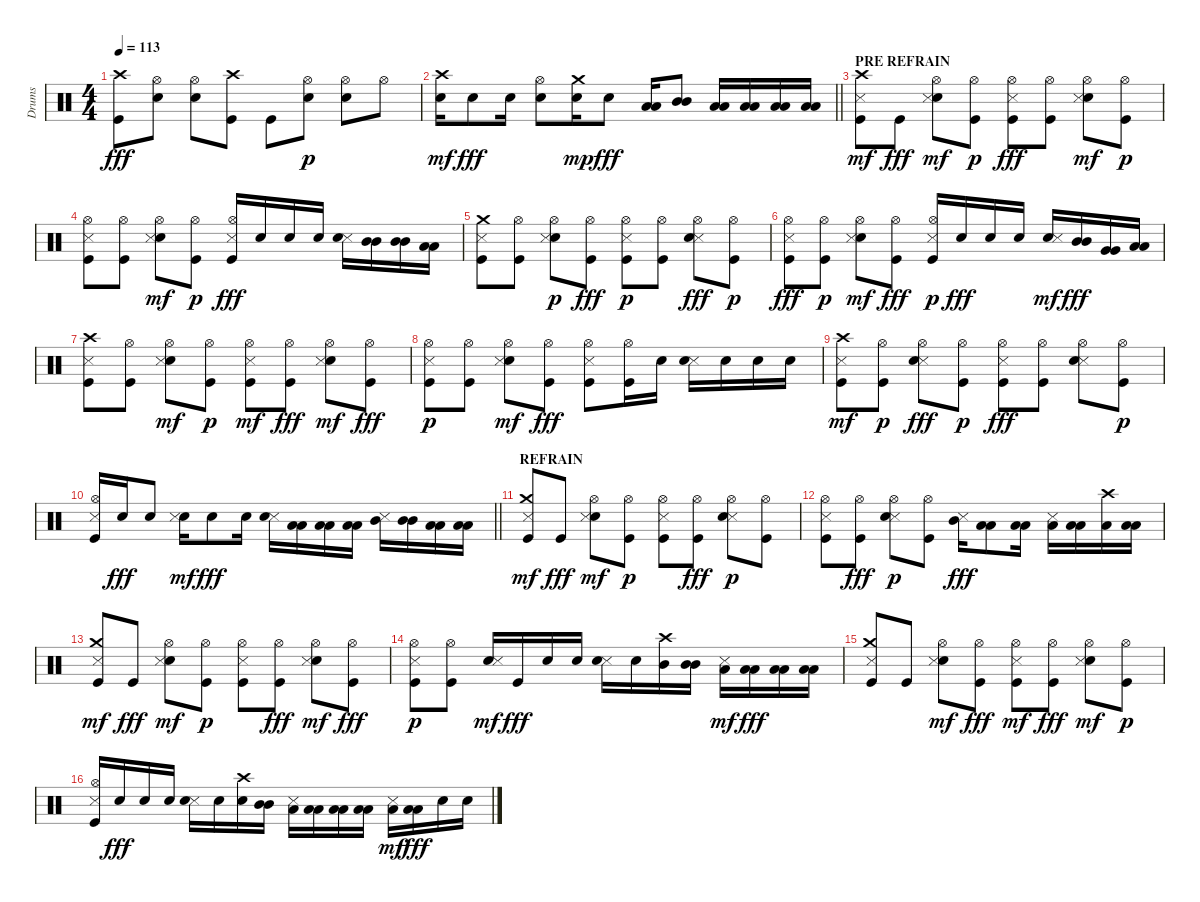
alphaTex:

\track ("Drums" "Drums") {instrument percussion}
\staff {score}
\articulation defaults
\ts (4 4)
\tempo 113
\clef neutral
\ks c
("Crash high (hit)" "Kick (hit)").8{dy fff} ("Hi-Hat (open)" "Electric Snare (hit)").8 ("Hi-Hat (open)" "Electric Snare (hit)").8 ("Crash high (hit)" "Kick (hit)").8 "Kick (hit)".8 ("Electric Snare (hit)" "Hi-Hat (open)").8{dy p} ("Electric Snare (hit)" "Hi-Hat (open)").8 "Hi-Hat (open)".8 |
\barLineRight lightlight
("Electric Snare (hit)" "Crash high (hit)").16{dy mf} "Electric Snare (hit)".8{dy fff} "Electric Snare (hit)".16 ("Hi-Hat (open)" "Electric Snare (hit)").8 ("Electric Snare (hit)" "Crash medium (hit)").16{dy mp} "Electric Snare (hit)".8{dy fff} ("Low Tom (hit)" "Low Tom (hit)").16 ("Mid Tom (hit)" "Mid Tom (hit)").8 ("Low Tom (hit)" "Low Tom (hit)").16 ("Low Floor Tom (hit)" "Low Floor Tom (hit)").16 ("Low Floor Tom (hit)" "Low Floor Tom (hit)").16 ("Low Floor Tom (hit)" "Low Floor Tom (hit)").16 |
\section ("" "PRE REFRAIN")
("Kick (hit)" "Crash high (hit)" "Snare (side stick) 3").8{dy mf} "Kick (hit)".8{dy fff} ("Electric Snare (hit)" "Hi-Hat (open)" "Snare (side stick) 3").8{dy mf} ("Kick (hit)" "Hi-Hat (open)").8{dy p} ("Snare (side stick) 3" "Hi-Hat (open)" "Kick (hit)").8{dy fff} ("Hi-Hat (open)" "Kick (hit)").8 ("Electric Snare (hit)" "Hi-Hat (open)" "Snare (side stick) 3").8{dy mf} ("Kick (hit)" "Hi-Hat (open)").8{dy p} |
("Snare (side stick) 3" "Kick (hit)" "Hi-Hat (open)").8 ("Kick (hit)" "Hi-Hat (open)").8 ("Electric Snare (hit)" "Hi-Hat (open)" "Snare (side stick) 3").8{dy mf} ("Kick (hit)" "Hi-Hat (open)").8{dy p} ("Snare (side stick) 3" "Hi-Hat (open)" "Kick (hit)").16{dy fff} "Electric Snare (hit)".16 "Electric Snare (hit)".16 "Electric Snare (hit)".16 ("Snare (side stick) 3" "Electric Snare (hit)").16 ("Mid Tom (hit)" "Mid Tom (hit)").16 ("Mid Tom (hit)" "Mid Tom (hit)").16 ("Low Tom (hit)" "Low Tom (hit)").16 |
("Snare (side stick) 3" "Crash medium (hit)" "Kick (hit)").8 ("Hi-Hat (open)" "Kick (hit)").8 ("Electric Snare (hit)" "Snare (side stick) 3" "Hi-Hat (open)").8{dy p} ("Hi-Hat (open)" "Kick (hit)").8{dy fff} ("Snare (side stick) 3" "Kick (hit)" "Hi-Hat (open)").8{dy p} ("Kick (hit)" "Hi-Hat (open)").8 ("Snare (side stick) 3" "Hi-Hat (open)" "Electric Snare (hit)").8{dy fff} ("Kick (hit)" "Hi-Hat (open)").8{dy p} |
("Snare (side stick) 3" "Hi-Hat (open)" "Kick (hit)").8{dy fff} ("Kick (hit)" "Hi-Hat (open)").8{dy p} ("Electric Snare (hit)" "Hi-Hat (open)" "Snare (side stick) 3").8{dy mf} ("Hi-Hat (open)" "Kick (hit)").8{dy fff} ("Snare (side stick) 3" "Kick (hit)" "Hi-Hat (open)").16{dy p} "Electric Snare (hit)".16{dy fff} "Electric Snare (hit)".16 "Electric Snare (hit)".16 ("Electric Snare (hit)" "Snare (side stick) 3").16{dy mf} ("Mid Tom (hit)" "Mid Tom (hit)").16{dy fff} ("Very Low Tom (hit)" "Very Low Tom (hit)").16 ("Low Tom (hit)" "Low Tom (hit)").16 |
("Snare (side stick) 3" "Crash high (hit)" "Kick (hit)").8 ("Hi-Hat (open)" "Kick (hit)").8 ("Electric Snare (hit)" "Hi-Hat (open)" "Snare (side stick) 3").8{dy mf} ("Kick (hit)" "Hi-Hat (open)").8{dy p} ("Hi-Hat (open)" "Kick (hit)" "Snare (side stick) 3").8{dy mf} ("Hi-Hat (open)" "Kick (hit)").8{dy fff} ("Electric Snare (hit)" "Hi-Hat (open)" "Snare (side stick) 3").8{dy mf} ("Hi-Hat (open)" "Kick (hit)").8{dy fff} |
("Snare (side stick) 3" "Kick (hit)" "Hi-Hat (open)").8{dy p} ("Kick (hit)" "Hi-Hat (open)").8 ("Electric Snare (hit)" "Hi-Hat (open)" "Snare (side stick) 3").8{dy mf} ("Hi-Hat (open)" "Kick (hit)").8{dy fff} ("Snare (side stick) 3" "Hi-Hat (open)" "Kick (hit)").8 ("Hi-Hat (open)" "Kick (hit)").16 "Electric Snare (hit)".16 ("Snare (side stick) 3" "Electric Snare (hit)").16 "Electric Snare (hit)".16 "Electric Snare (hit)".16 "Electric Snare (hit)".16 |
("Crash high (hit)" "Kick (hit)" "Snare (side stick) 3").8{dy mf} ("Kick (hit)" "Hi-Hat (open)").8{dy p} ("Hi-Hat (open)" "Snare (side stick) 3" "Electric Snare (hit)").8{dy fff} ("Kick (hit)" "Hi-Hat (open)").8{dy p} ("Snare (side stick) 3" "Hi-Hat (open)" "Kick (hit)").8{dy fff} ("Hi-Hat (open)" "Kick (hit)").8 ("Snare (side stick) 3" "Hi-Hat (open)" "Electric Snare (hit)").8 ("Kick (hit)" "Hi-Hat (open)").8{dy p} |
\barLineRight lightlight
("Snare (side stick) 3" "Kick (hit)" "Hi-Hat (open)").16 "Electric Snare (hit)".16{dy fff} "Electric Snare (hit)".8 ("Electric Snare (hit)" "Snare (side stick) 3").16{dy mf} "Electric Snare (hit)".8{dy fff} "Electric Snare (hit)".16 ("Snare (side stick) 3" "Electric Snare (hit)").16 ("Low Floor Tom (hit)" "Low Floor Tom (hit)").16 ("Low Floor Tom (hit)" "Low Floor Tom (hit)").16 ("Low Tom (hit)" "Low Tom (hit)").16 ("Snare (side stick) 3" "Mid Tom (hit)").16 ("Mid Tom (hit)" "Mid Tom (hit)").16 ("Low Floor Tom (hit)" "Low Floor Tom (hit)").16 ("Low Tom (hit)" "Low Tom (hit)").16 |
\section ("" "REFRAIN")
("Kick (hit)" "Crash medium (hit)" "Snare (side stick) 3").8{dy mf} "Kick (hit)".8{dy fff} ("Hi-Hat (open)" "Electric Snare (hit)" "Snare (side stick) 3").8{dy mf} ("Kick (hit)" "Hi-Hat (open)").8{dy p} ("Snare (side stick) 3" "Kick (hit)" "Hi-Hat (open)").8 ("Hi-Hat (open)" "Kick (hit)").8{dy fff} ("Snare (side stick) 3" "Electric Snare (hit)" "Hi-Hat (open)").8{dy p} ("Kick (hit)" "Hi-Hat (open)").8 |
("Snare (side stick) 3" "Kick (hit)" "Hi-Hat (open)").8 ("Hi-Hat (open)" "Kick (hit)").8{dy fff} ("Snare (side stick) 3" "Electric Snare (hit)" "Hi-Hat (open)").8{dy p} ("Kick (hit)" "Hi-Hat (open)").8 ("Snare (side stick) 3" "Mid Tom (hit)").16{dy fff} ("Low Tom (hit)" "Low Tom (hit)").8 ("Low Tom (hit)" "Low Tom (hit)").16 ("Snare (side stick) 3" "Low Tom (hit)").16 ("Low Floor Tom (hit)" "Low Floor Tom (hit)").16 ("Crash high (hit)" "Low Floor Tom (hit)").16 ("Low Floor Tom (hit)" "Low Floor Tom (hit)").16 |
("Kick (hit)" "Crash medium (hit)" "Snare (side stick) 3").8{dy mf} "Kick (hit)".8{dy fff} ("Hi-Hat (open)" "Electric Snare (hit)" "Snare (side stick) 3").8{dy mf} ("Kick (hit)" "Hi-Hat (open)").8{dy p} ("Snare (side stick) 3" "Kick (hit)" "Hi-Hat (open)").8 ("Hi-Hat (open)" "Kick (hit)").8{dy fff} ("Hi-Hat (open)" "Electric Snare (hit)" "Snare (side stick) 3").8{dy mf} ("Hi-Hat (open)" "Kick (hit)").8{dy fff} |
("Snare (side stick) 3" "Kick (hit)" "Hi-Hat (open)").8{dy p} ("Kick (hit)" "Hi-Hat (open)").8 ("Electric Snare (hit)" "Snare (side stick) 3").16{dy mf} "Kick (hit)".16{dy fff} "Electric Snare (hit)".16 "Electric Snare (hit)".16 ("Snare (side stick) 3" "Electric Snare (hit)").16 "Electric Snare (hit)".16 ("Crash high (hit)" "Mid Tom (hit)").16 ("Mid Tom (hit)" "Mid Tom (hit)").16 ("Low Tom (hit)" "Snare (side stick) 3").16{dy mf} ("Low Tom (hit)" "Low Tom (hit)").16{dy fff} ("Low Floor Tom (hit)" "Low Floor Tom (hit)").16 ("Low Floor Tom (hit)" "Low Floor Tom (hit)").16 |
("Snare (side stick) 3" "Crash medium (hit)" "Kick (hit)").8 "Kick (hit)".8 ("Electric Snare (hit)" "Hi-Hat (open)" "Snare (side stick) 3").8{dy mf} ("Hi-Hat (open)" "Kick (hit)").8{dy fff} ("Hi-Hat (open)" "Kick (hit)" "Snare (side stick) 3").8{dy mf} ("Hi-Hat (open)" "Kick (hit)").8{dy fff} ("Electric Snare (hit)" "Hi-Hat (open)" "Snare (side stick) 3").8{dy mf} ("Kick (hit)" "Hi-Hat (open)").8{dy p} |
("Snare (side stick) 3" "Kick (hit)" "Hi-Hat (open)").16 "Electric Snare (hit)".16{dy fff} "Electric Snare (hit)".16 "Electric Snare (hit)".16 ("Snare (side stick) 3" "Electric Snare (hit)").16 "Electric Snare (hit)".16 ("Crash high (hit)" "Electric Snare (hit)").16 ("Mid Tom (hit)" "Mid Tom (hit)").16 ("Snare (side stick) 3" "Low Tom (hit)").16 ("Low Tom (hit)" "Low Tom (hit)").16 ("Low Tom (hit)" "Low Tom (hit)").16 ("Low Tom (hit)" "Low Tom (hit)").16 ("Low Floor Tom (hit)" "Snare (side stick) 3").16{dy mf} ("Low Floor Tom (hit)" "Low Floor Tom (hit)").16{dy fff} "Electric Snare (hit)".16 "Electric Snare (hit)".16
